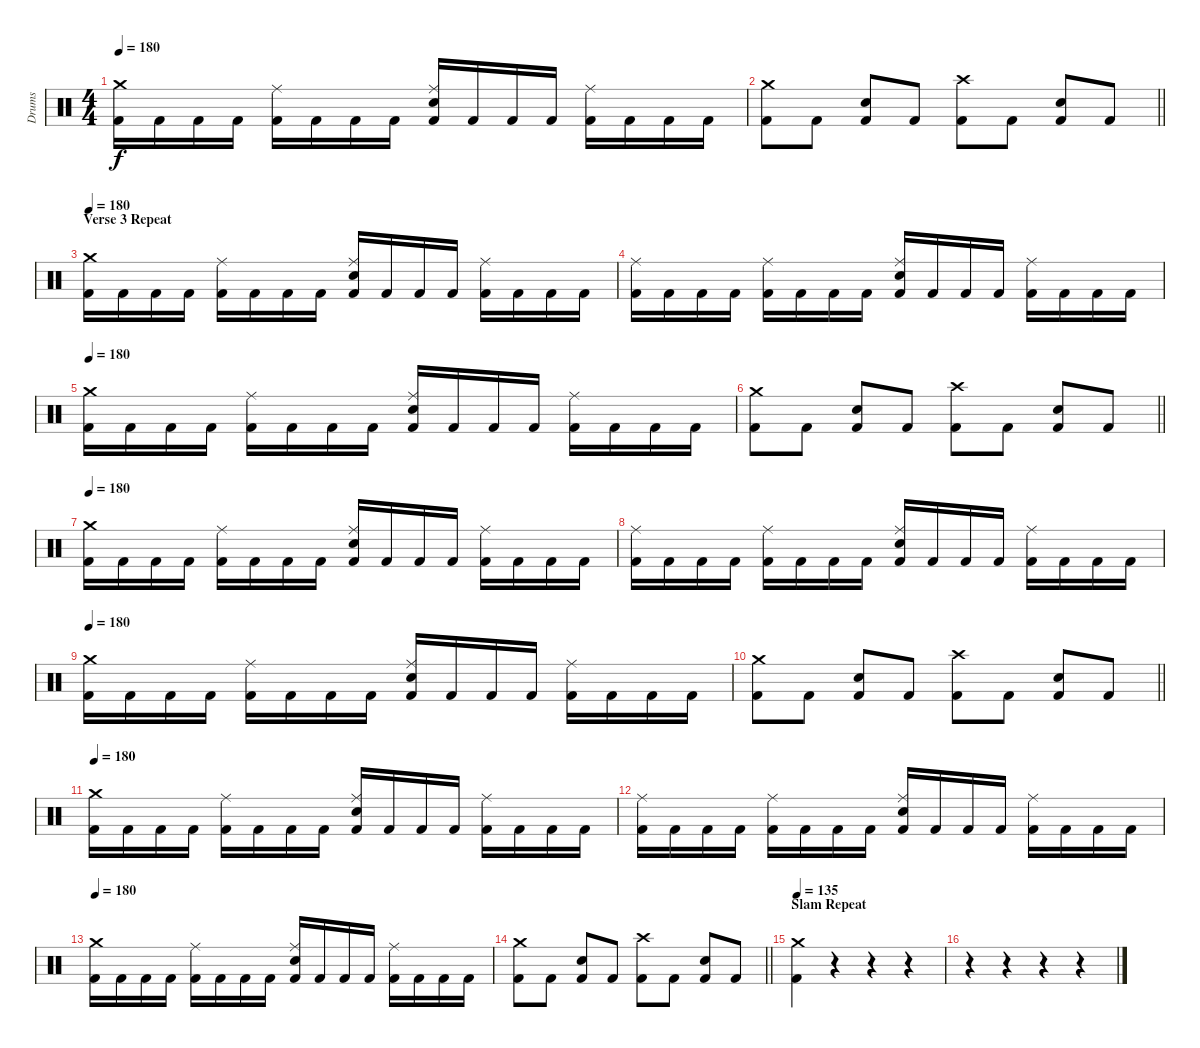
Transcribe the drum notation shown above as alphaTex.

\track ("Drums" "Drums") {instrument percussion}
\staff {score}
\articulation defaults
\ts (4 4)
\tempo 180
\clef neutral
\ks c
("Crash medium (hit)" "Kick (hit) 2").16{dy f} "Kick (hit) 2".16 "Kick (hit) 2".16 "Kick (hit) 2".16 ("Ride (middle)" "Kick (hit) 2").16 "Kick (hit) 2".16 "Kick (hit) 2".16 "Kick (hit) 2".16 ("Ride (middle)" "Electric Snare (hit)" "Kick (hit) 2").16 "Kick (hit) 2".16 "Kick (hit) 2".16 "Kick (hit) 2".16 ("Ride (middle)" "Kick (hit) 2").16 "Kick (hit) 2".16 "Kick (hit) 2".16 "Kick (hit) 2".16 |
\barLineRight lightlight
("Crash medium (hit)" "Kick (hit) 2").8 "Kick (hit) 2".8 ("Electric Snare (hit)" "Kick (hit) 2").8 "Kick (hit) 2".8 ("Crash high (hit)" "Kick (hit) 2").8 "Kick (hit) 2".8 ("Electric Snare (hit)" "Kick (hit) 2").8 "Kick (hit) 2".8 |
\section ("" "Verse 3 Repeat")
\tempo 180
("Crash medium (hit)" "Kick (hit) 2").16 "Kick (hit) 2".16 "Kick (hit) 2".16 "Kick (hit) 2".16 ("Ride (middle)" "Kick (hit) 2").16 "Kick (hit) 2".16 "Kick (hit) 2".16 "Kick (hit) 2".16 ("Ride (middle)" "Electric Snare (hit)" "Kick (hit) 2").16 "Kick (hit) 2".16 "Kick (hit) 2".16 "Kick (hit) 2".16 ("Ride (middle)" "Kick (hit) 2").16 "Kick (hit) 2".16 "Kick (hit) 2".16 "Kick (hit) 2".16 |
("Ride (middle)" "Kick (hit) 2").16 "Kick (hit) 2".16 "Kick (hit) 2".16 "Kick (hit) 2".16 ("Ride (middle)" "Kick (hit) 2").16 "Kick (hit) 2".16 "Kick (hit) 2".16 "Kick (hit) 2".16 ("Ride (middle)" "Electric Snare (hit)" "Kick (hit) 2").16 "Kick (hit) 2".16 "Kick (hit) 2".16 "Kick (hit) 2".16 ("Ride (middle)" "Kick (hit) 2").16 "Kick (hit) 2".16 "Kick (hit) 2".16 "Kick (hit) 2".16 |
\tempo 180
("Crash medium (hit)" "Kick (hit) 2").16 "Kick (hit) 2".16 "Kick (hit) 2".16 "Kick (hit) 2".16 ("Ride (middle)" "Kick (hit) 2").16 "Kick (hit) 2".16 "Kick (hit) 2".16 "Kick (hit) 2".16 ("Ride (middle)" "Electric Snare (hit)" "Kick (hit) 2").16 "Kick (hit) 2".16 "Kick (hit) 2".16 "Kick (hit) 2".16 ("Ride (middle)" "Kick (hit) 2").16 "Kick (hit) 2".16 "Kick (hit) 2".16 "Kick (hit) 2".16 |
\barLineRight lightlight
("Crash medium (hit)" "Kick (hit) 2").8 "Kick (hit) 2".8 ("Electric Snare (hit)" "Kick (hit) 2").8 "Kick (hit) 2".8 ("Crash high (hit)" "Kick (hit) 2").8 "Kick (hit) 2".8 ("Electric Snare (hit)" "Kick (hit) 2").8 "Kick (hit) 2".8 |
\tempo 180
("Crash medium (hit)" "Kick (hit) 2").16 "Kick (hit) 2".16 "Kick (hit) 2".16 "Kick (hit) 2".16 ("Ride (middle)" "Kick (hit) 2").16 "Kick (hit) 2".16 "Kick (hit) 2".16 "Kick (hit) 2".16 ("Ride (middle)" "Electric Snare (hit)" "Kick (hit) 2").16 "Kick (hit) 2".16 "Kick (hit) 2".16 "Kick (hit) 2".16 ("Ride (middle)" "Kick (hit) 2").16 "Kick (hit) 2".16 "Kick (hit) 2".16 "Kick (hit) 2".16 |
("Ride (middle)" "Kick (hit) 2").16 "Kick (hit) 2".16 "Kick (hit) 2".16 "Kick (hit) 2".16 ("Ride (middle)" "Kick (hit) 2").16 "Kick (hit) 2".16 "Kick (hit) 2".16 "Kick (hit) 2".16 ("Ride (middle)" "Electric Snare (hit)" "Kick (hit) 2").16 "Kick (hit) 2".16 "Kick (hit) 2".16 "Kick (hit) 2".16 ("Ride (middle)" "Kick (hit) 2").16 "Kick (hit) 2".16 "Kick (hit) 2".16 "Kick (hit) 2".16 |
\tempo 180
("Crash medium (hit)" "Kick (hit) 2").16 "Kick (hit) 2".16 "Kick (hit) 2".16 "Kick (hit) 2".16 ("Ride (middle)" "Kick (hit) 2").16 "Kick (hit) 2".16 "Kick (hit) 2".16 "Kick (hit) 2".16 ("Ride (middle)" "Electric Snare (hit)" "Kick (hit) 2").16 "Kick (hit) 2".16 "Kick (hit) 2".16 "Kick (hit) 2".16 ("Ride (middle)" "Kick (hit) 2").16 "Kick (hit) 2".16 "Kick (hit) 2".16 "Kick (hit) 2".16 |
\barLineRight lightlight
("Crash medium (hit)" "Kick (hit) 2").8 "Kick (hit) 2".8 ("Electric Snare (hit)" "Kick (hit) 2").8 "Kick (hit) 2".8 ("Crash high (hit)" "Kick (hit) 2").8 "Kick (hit) 2".8 ("Electric Snare (hit)" "Kick (hit) 2").8 "Kick (hit) 2".8 |
\tempo 180
("Crash medium (hit)" "Kick (hit) 2").16 "Kick (hit) 2".16 "Kick (hit) 2".16 "Kick (hit) 2".16 ("Ride (middle)" "Kick (hit) 2").16 "Kick (hit) 2".16 "Kick (hit) 2".16 "Kick (hit) 2".16 ("Ride (middle)" "Electric Snare (hit)" "Kick (hit) 2").16 "Kick (hit) 2".16 "Kick (hit) 2".16 "Kick (hit) 2".16 ("Ride (middle)" "Kick (hit) 2").16 "Kick (hit) 2".16 "Kick (hit) 2".16 "Kick (hit) 2".16 |
("Ride (middle)" "Kick (hit) 2").16 "Kick (hit) 2".16 "Kick (hit) 2".16 "Kick (hit) 2".16 ("Ride (middle)" "Kick (hit) 2").16 "Kick (hit) 2".16 "Kick (hit) 2".16 "Kick (hit) 2".16 ("Ride (middle)" "Electric Snare (hit)" "Kick (hit) 2").16 "Kick (hit) 2".16 "Kick (hit) 2".16 "Kick (hit) 2".16 ("Ride (middle)" "Kick (hit) 2").16 "Kick (hit) 2".16 "Kick (hit) 2".16 "Kick (hit) 2".16 |
\tempo 180
("Crash medium (hit)" "Kick (hit) 2").16 "Kick (hit) 2".16 "Kick (hit) 2".16 "Kick (hit) 2".16 ("Ride (middle)" "Kick (hit) 2").16 "Kick (hit) 2".16 "Kick (hit) 2".16 "Kick (hit) 2".16 ("Ride (middle)" "Electric Snare (hit)" "Kick (hit) 2").16 "Kick (hit) 2".16 "Kick (hit) 2".16 "Kick (hit) 2".16 ("Ride (middle)" "Kick (hit) 2").16 "Kick (hit) 2".16 "Kick (hit) 2".16 "Kick (hit) 2".16 |
\barLineRight lightlight
("Crash medium (hit)" "Kick (hit) 2").8 "Kick (hit) 2".8 ("Electric Snare (hit)" "Kick (hit) 2").8 "Kick (hit) 2".8 ("Crash high (hit)" "Kick (hit) 2").8 "Kick (hit) 2".8 ("Electric Snare (hit)" "Kick (hit) 2").8 "Kick (hit) 2".8 |
\section ("" "Slam Repeat")
\tempo 135
("Crash medium (hit)" "Kick (hit) 2").4 r.4 r.4 r.4 |
r.4 r.4 r.4 r.4
